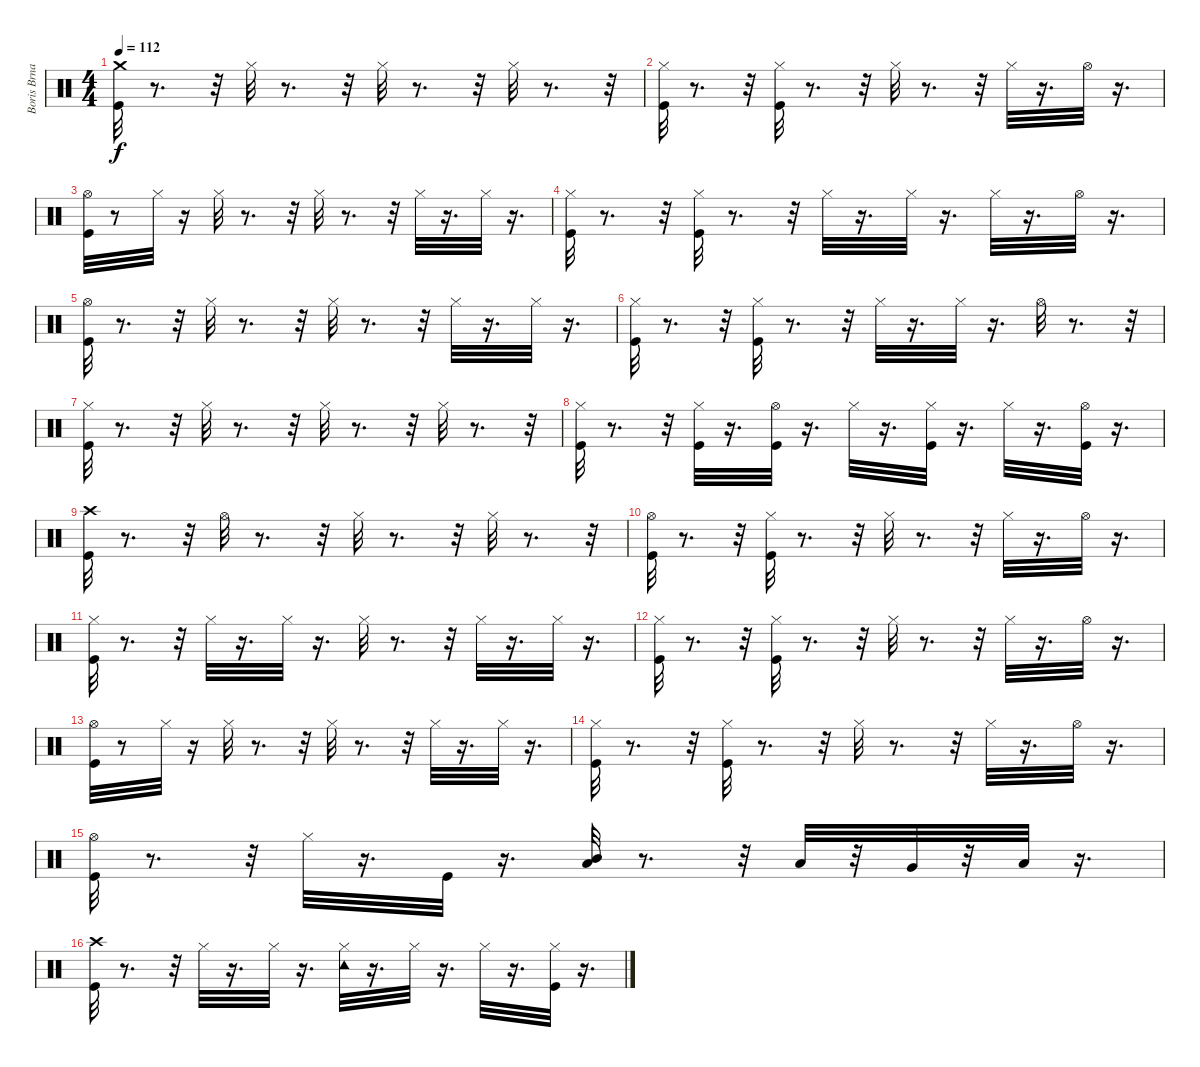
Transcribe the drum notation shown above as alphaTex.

\track ("Boris Brna (Drums)" "Boris Brna") {instrument percussion}
\staff {score}
\articulation defaults
\ts (4 4)
\tempo 112
\clef neutral
\ks c
("Kick (hit)" "Crash medium (hit)").32{dy f} r.8{d} r.32 "Hi-Hat (closed)".32 r.8{d} r.32 "Hi-Hat (closed)".32 r.8{d} r.32 "Hi-Hat (closed)".32 r.8{d} r.32 |
("Kick (hit)" "Hi-Hat (closed)").32 r.8{d} r.32 ("Kick (hit)" "Hi-Hat (closed)").32 r.8{d} r.32 "Hi-Hat (closed)".32 r.8{d} r.32 "Hi-Hat (closed)".32 r.16{d} "Hi-Hat (open)".32 r.16{d} |
("Kick (hit)" "Hi-Hat (open)").32 r.8 "Hi-Hat (closed)".32 r.16 "Hi-Hat (closed)".32 r.8{d} r.32 "Hi-Hat (closed)".32 r.8{d} r.32 "Hi-Hat (closed)".32 r.16{d} "Hi-Hat (closed)".32 r.16{d} |
("Kick (hit)" "Hi-Hat (closed)").32 r.8{d} r.32 ("Kick (hit)" "Hi-Hat (closed)").32 r.8{d} r.32 "Hi-Hat (closed)".32 r.16{d} "Hi-Hat (closed)".32 r.16{d} "Hi-Hat (closed)".32 r.16{d} "Hi-Hat (open)".32 r.16{d} |
("Kick (hit)" "Hi-Hat (open)").32 r.8{d} r.32 "Hi-Hat (closed)".32 r.8{d} r.32 "Hi-Hat (closed)".32 r.8{d} r.32 "Hi-Hat (closed)".32 r.16{d} "Hi-Hat (closed)".32 r.16{d} |
("Kick (hit)" "Hi-Hat (closed)").32 r.8{d} r.32 ("Kick (hit)" "Hi-Hat (closed)").32 r.8{d} r.32 "Hi-Hat (closed)".32 r.16{d} "Hi-Hat (closed)".32 r.16{d} "Hi-Hat (open)".32 r.8{d} r.32 |
("Kick (hit)" "Hi-Hat (closed)").32 r.8{d} r.32 "Hi-Hat (closed)".32 r.8{d} r.32 "Hi-Hat (closed)".32 r.8{d} r.32 "Hi-Hat (closed)".32 r.8{d} r.32 |
("Kick (hit)" "Hi-Hat (closed)").32 r.8{d} r.32 ("Kick (hit)" "Hi-Hat (closed)").32 r.16{d} ("Hi-Hat (open)" "Kick (hit)").32 r.16{d} "Hi-Hat (closed)".32 r.16{d} ("Hi-Hat (closed)" "Kick (hit)").32 r.16{d} "Hi-Hat (closed)".32 r.16{d} ("Hi-Hat (open)" "Kick (hit)").32 r.16{d} |
("Kick (hit)" "Crash high (hit)").32 r.8{d} r.32 "Hi-Hat (open)".32 r.8{d} r.32 "Hi-Hat (closed)".32 r.8{d} r.32 "Hi-Hat (closed)".32 r.8{d} r.32 |
("Kick (hit)" "Hi-Hat (open)").32 r.8{d} r.32 ("Kick (hit)" "Hi-Hat (closed)").32 r.8{d} r.32 "Hi-Hat (closed)".32 r.8{d} r.32 "Hi-Hat (closed)".32 r.16{d} "Hi-Hat (open)".32 r.16{d} |
("Kick (hit)" "Hi-Hat (closed)").32 r.8{d} r.32 "Hi-Hat (closed)".32 r.16{d} "Hi-Hat (closed)".32 r.16{d} "Hi-Hat (closed)".32 r.8{d} r.32 "Hi-Hat (closed)".32 r.16{d} "Hi-Hat (closed)".32 r.16{d} |
("Kick (hit)" "Hi-Hat (closed)").32 r.8{d} r.32 ("Kick (hit)" "Hi-Hat (closed)").32 r.8{d} r.32 "Hi-Hat (closed)".32 r.8{d} r.32 "Hi-Hat (closed)".32 r.16{d} "Hi-Hat (open)".32 r.16{d} |
("Kick (hit)" "Hi-Hat (open)").32 r.8 "Hi-Hat (closed)".32 r.16 "Hi-Hat (closed)".32 r.8{d} r.32 "Hi-Hat (closed)".32 r.8{d} r.32 "Hi-Hat (closed)".32 r.16{d} "Hi-Hat (closed)".32 r.16{d} |
("Kick (hit)" "Hi-Hat (closed)").32 r.8{d} r.32 ("Kick (hit)" "Hi-Hat (closed)").32 r.8{d} r.32 "Hi-Hat (closed)".32 r.8{d} r.32 "Hi-Hat (closed)".32 r.16{d} "Hi-Hat (open)".32 r.16{d} |
("Kick (hit)" "Hi-Hat (open)").32 r.8{d} r.32 "Hi-Hat (closed)".32 r.16{d} "Kick (hit)".32 r.16{d} ("Mid Tom (hit)" "Low Tom (hit)").32 r.8{d} r.32 "Low Tom (hit)".32 r.32 "Very Low Tom (hit)".32 r.32 "Low Floor Tom (hit)".32 r.16{d} |
("Kick (hit)" "Crash high (hit)").32 r.8{d} r.32 "Hi-Hat (closed)".32 r.16{d} "Hi-Hat (closed)".32 r.16{d} ("Tambourine (hit)" "Hi-Hat (closed)").32 r.16{d} "Hi-Hat (closed)".32 r.16{d} "Hi-Hat (closed)".32 r.16{d} ("Hi-Hat (closed)" "Kick (hit)").32 r.16{d}
